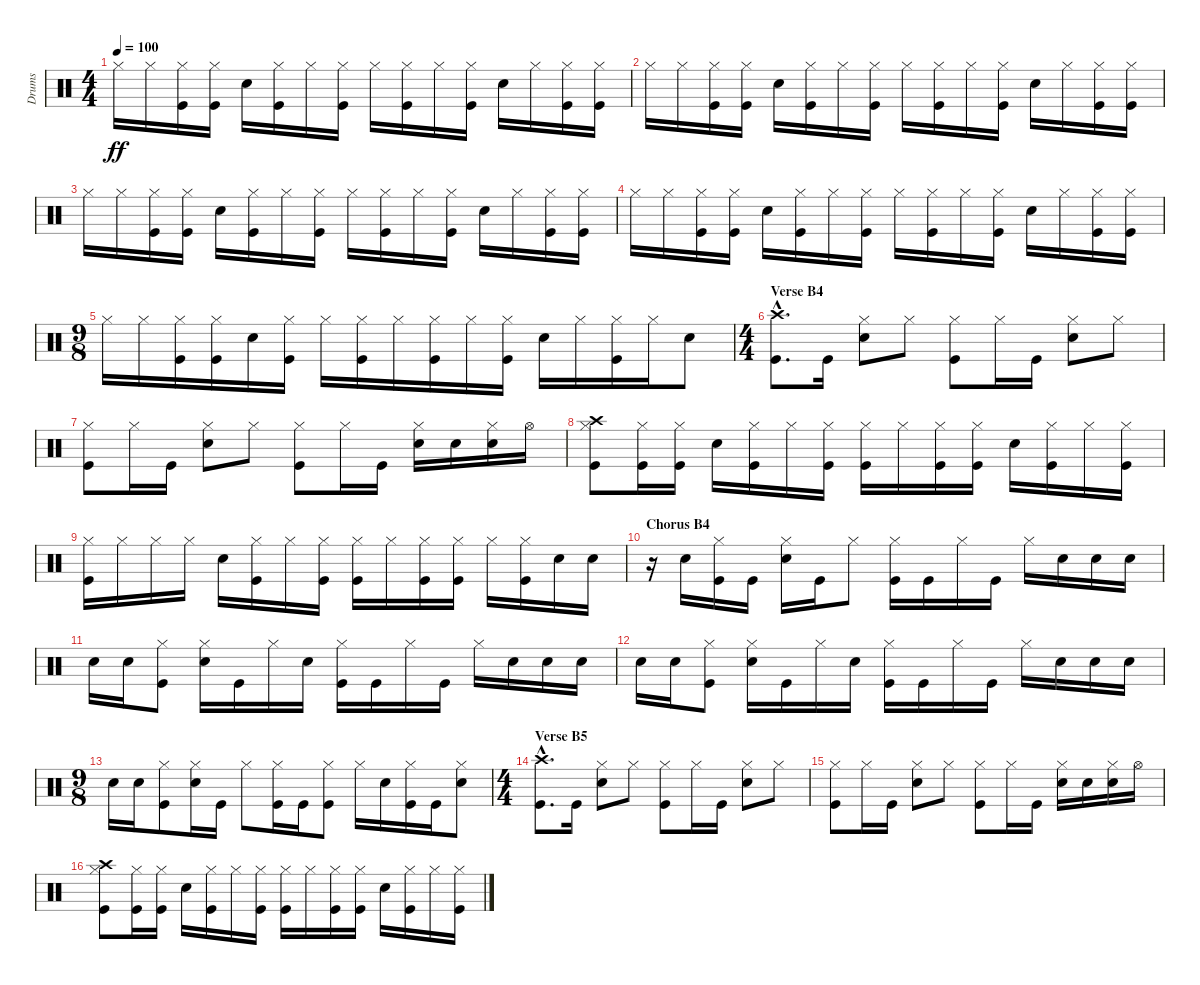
\track ("Drums" "Drums") {instrument percussion}
\staff {score}
\articulation defaults
\ts (4 4)
\tempo 100
\clef neutral
\ks c "Hi-Hat (closed)".16{dy ff} "Hi-Hat (closed)".16
("Hi-Hat (closed)" "Kick (hit)").16 ("Hi-Hat (closed)" "Kick (hit)").16 "Electric Snare (hit)".16 ("Hi-Hat (closed)" "Kick (hit)").16 "Hi-Hat (closed)".16 ("Hi-Hat (closed)" "Kick (hit)").16 "Hi-Hat (closed)".16 ("Hi-Hat (closed)" "Kick (hit)").16 "Hi-Hat (closed)".16 ("Hi-Hat (closed)" "Kick (hit)").16 "Electric Snare (hit)".16 "Hi-Hat (closed)".16 ("Hi-Hat (closed)" "Kick (hit)").16 ("Hi-Hat (closed)" "Kick (hit)").16 |
"Hi-Hat (closed)".16 "Hi-Hat (closed)".16 ("Hi-Hat (closed)" "Kick (hit)").16 ("Hi-Hat (closed)" "Kick (hit)").16 "Electric Snare (hit)".16 ("Hi-Hat (closed)" "Kick (hit)").16 "Hi-Hat (closed)".16 ("Hi-Hat (closed)" "Kick (hit)").16 "Hi-Hat (closed)".16 ("Hi-Hat (closed)" "Kick (hit)").16 "Hi-Hat (closed)".16 ("Hi-Hat (closed)" "Kick (hit)").16 "Electric Snare (hit)".16 "Hi-Hat (closed)".16 ("Hi-Hat (closed)" "Kick (hit)").16 ("Hi-Hat (closed)" "Kick (hit)").16 |
"Hi-Hat (closed)".16 "Hi-Hat (closed)".16 ("Hi-Hat (closed)" "Kick (hit)").16 ("Hi-Hat (closed)" "Kick (hit)").16 "Electric Snare (hit)".16 ("Hi-Hat (closed)" "Kick (hit)").16 "Hi-Hat (closed)".16 ("Hi-Hat (closed)" "Kick (hit)").16 "Hi-Hat (closed)".16 ("Hi-Hat (closed)" "Kick (hit)").16 "Hi-Hat (closed)".16 ("Hi-Hat (closed)" "Kick (hit)").16 "Electric Snare (hit)".16 "Hi-Hat (closed)".16 ("Hi-Hat (closed)" "Kick (hit)").16 ("Hi-Hat (closed)" "Kick (hit)").16 |
"Hi-Hat (closed)".16 "Hi-Hat (closed)".16 ("Hi-Hat (closed)" "Kick (hit)").16 ("Hi-Hat (closed)" "Kick (hit)").16 "Electric Snare (hit)".16 ("Hi-Hat (closed)" "Kick (hit)").16 "Hi-Hat (closed)".16 ("Hi-Hat (closed)" "Kick (hit)").16 "Hi-Hat (closed)".16 ("Hi-Hat (closed)" "Kick (hit)").16 "Hi-Hat (closed)".16 ("Hi-Hat (closed)" "Kick (hit)").16 "Electric Snare (hit)".16 "Hi-Hat (closed)".16 ("Hi-Hat (closed)" "Kick (hit)").16 ("Hi-Hat (closed)" "Kick (hit)").16 |
\ts (9 8)
"Hi-Hat (closed)".16 "Hi-Hat (closed)".16 ("Hi-Hat (closed)" "Kick (hit)").16 ("Hi-Hat (closed)" "Kick (hit)").16 "Electric Snare (hit)".16 ("Hi-Hat (closed)" "Kick (hit)").16 "Hi-Hat (closed)".16 ("Hi-Hat (closed)" "Kick (hit)").16 "Hi-Hat (closed)".16 ("Hi-Hat (closed)" "Kick (hit)").16 "Hi-Hat (closed)".16 ("Hi-Hat (closed)" "Kick (hit)").16 "Electric Snare (hit)".16 "Hi-Hat (closed)".16 ("Hi-Hat (closed)" "Kick (hit)").16 "Hi-Hat (closed)".16 "Electric Snare (hit)".8 |
\ts (4 4)
\section ("" "Verse B4")
("Crash high (hit)"{hac} "Kick (hit)"{hac}).8{d} "Kick (hit)".16 ("Hi-Hat (closed)" "Electric Snare (hit)").8 "Hi-Hat (closed)".8 ("Hi-Hat (closed)" "Kick (hit)").8 "Hi-Hat (closed)".16 "Kick (hit)".16 ("Hi-Hat (closed)" "Electric Snare (hit)").8 "Hi-Hat (closed)".8 |
("Hi-Hat (closed)" "Kick (hit)").8 "Hi-Hat (closed)".16 "Kick (hit)".16 ("Hi-Hat (closed)" "Electric Snare (hit)").8 "Hi-Hat (closed)".8 ("Hi-Hat (closed)" "Kick (hit)").8 "Hi-Hat (closed)".16 "Kick (hit)".16 ("Hi-Hat (closed)" "Electric Snare (hit)").16 "Electric Snare (hit)".16 ("Hi-Hat (closed)" "Electric Snare (hit)").16 "Hi-Hat (open)".16 |
("Hi-Hat (closed)" "Crash high (hit)" "Kick (hit)").8 ("Hi-Hat (closed)" "Kick (hit)").16 ("Hi-Hat (closed)" "Kick (hit)").16 "Electric Snare (hit)".16 ("Hi-Hat (closed)" "Kick (hit)").16 "Hi-Hat (closed)".16 ("Hi-Hat (closed)" "Kick (hit)").16 ("Hi-Hat (closed)" "Kick (hit)").16 "Hi-Hat (closed)".16 ("Hi-Hat (closed)" "Kick (hit)").16 ("Hi-Hat (closed)" "Kick (hit)").16 "Electric Snare (hit)".16 ("Hi-Hat (closed)" "Kick (hit)").16 "Hi-Hat (closed)".16 ("Hi-Hat (closed)" "Kick (hit)").16 |
("Hi-Hat (closed)" "Kick (hit)").16 "Hi-Hat (closed)".16 "Hi-Hat (closed)".16 "Hi-Hat (closed)".16 "Electric Snare (hit)".16 ("Hi-Hat (closed)" "Kick (hit)").16 "Hi-Hat (closed)".16 ("Hi-Hat (closed)" "Kick (hit)").16 ("Hi-Hat (closed)" "Kick (hit)").16 "Hi-Hat (closed)".16 ("Hi-Hat (closed)" "Kick (hit)").16 ("Hi-Hat (closed)" "Kick (hit)").16 "Hi-Hat (closed)".16 ("Hi-Hat (closed)" "Kick (hit)").16 "Electric Snare (hit)".16 "Electric Snare (hit)".16 |
\section ("" "Chorus B4")
r.16 "Electric Snare (hit)".16 ("Hi-Hat (closed)" "Kick (hit)").16 "Kick (hit)".16 ("Hi-Hat (closed)" "Electric Snare (hit)").16 "Kick (hit)".16 "Hi-Hat (closed)".8 ("Hi-Hat (closed)" "Kick (hit)").16 "Kick (hit)".16 "Hi-Hat (closed)".16 "Kick (hit)".16 "Hi-Hat (closed)".16 "Electric Snare (hit)".16 "Electric Snare (hit)".16 "Electric Snare (hit)".16 |
"Electric Snare (hit)".16 "Electric Snare (hit)".16 ("Hi-Hat (closed)" "Kick (hit)").8 ("Hi-Hat (closed)" "Electric Snare (hit)").16 "Kick (hit)".16 "Hi-Hat (closed)".16 "Electric Snare (hit)".16 ("Hi-Hat (closed)" "Kick (hit)").16 "Kick (hit)".16 "Hi-Hat (closed)".16 "Kick (hit)".16 "Hi-Hat (closed)".16 "Electric Snare (hit)".16 "Electric Snare (hit)".16 "Electric Snare (hit)".16 |
"Electric Snare (hit)".16 "Electric Snare (hit)".16 ("Hi-Hat (closed)" "Kick (hit)").8 ("Hi-Hat (closed)" "Electric Snare (hit)").16 "Kick (hit)".16 "Hi-Hat (closed)".16 "Electric Snare (hit)".16 ("Hi-Hat (closed)" "Kick (hit)").16 "Kick (hit)".16 "Hi-Hat (closed)".16 "Kick (hit)".16 "Hi-Hat (closed)".16 "Electric Snare (hit)".16 "Electric Snare (hit)".16 "Electric Snare (hit)".16 |
\ts (9 8)
"Electric Snare (hit)".16 "Electric Snare (hit)".16 ("Hi-Hat (closed)" "Kick (hit)").8 ("Hi-Hat (closed)" "Electric Snare (hit)").16 "Kick (hit)".16 "Hi-Hat (closed)".8 ("Hi-Hat (closed)" "Kick (hit)").16 "Kick (hit)".16 ("Hi-Hat (closed)" "Kick (hit)").8 "Hi-Hat (closed)".16 "Electric Snare (hit)".16 ("Hi-Hat (closed)" "Kick (hit)").16 "Kick (hit)".16 ("Hi-Hat (closed)" "Electric Snare (hit)").8 |
\ts (4 4)
\section ("" "Verse B5")
("Crash high (hit)"{hac} "Kick (hit)"{hac}).8{d} "Kick (hit)".16 ("Hi-Hat (closed)" "Electric Snare (hit)").8 "Hi-Hat (closed)".8 ("Hi-Hat (closed)" "Kick (hit)").8 "Hi-Hat (closed)".16 "Kick (hit)".16 ("Hi-Hat (closed)" "Electric Snare (hit)").8 "Hi-Hat (closed)".8 |
("Hi-Hat (closed)" "Kick (hit)").8 "Hi-Hat (closed)".16 "Kick (hit)".16 ("Hi-Hat (closed)" "Electric Snare (hit)").8 "Hi-Hat (closed)".8 ("Hi-Hat (closed)" "Kick (hit)").8 "Hi-Hat (closed)".16 "Kick (hit)".16 ("Hi-Hat (closed)" "Electric Snare (hit)").16 "Electric Snare (hit)".16 ("Hi-Hat (closed)" "Electric Snare (hit)").16 "Hi-Hat (open)".16 |
("Hi-Hat (closed)" "Crash high (hit)" "Kick (hit)").8 ("Hi-Hat (closed)" "Kick (hit)").16 ("Hi-Hat (closed)" "Kick (hit)").16 "Electric Snare (hit)".16 ("Hi-Hat (closed)" "Kick (hit)").16 "Hi-Hat (closed)".16 ("Hi-Hat (closed)" "Kick (hit)").16 ("Hi-Hat (closed)" "Kick (hit)").16 "Hi-Hat (closed)".16 ("Hi-Hat (closed)" "Kick (hit)").16 ("Hi-Hat (closed)" "Kick (hit)").16 "Electric Snare (hit)".16 ("Hi-Hat (closed)" "Kick (hit)").16 "Hi-Hat (closed)".16 ("Hi-Hat (closed)" "Kick (hit)").16
